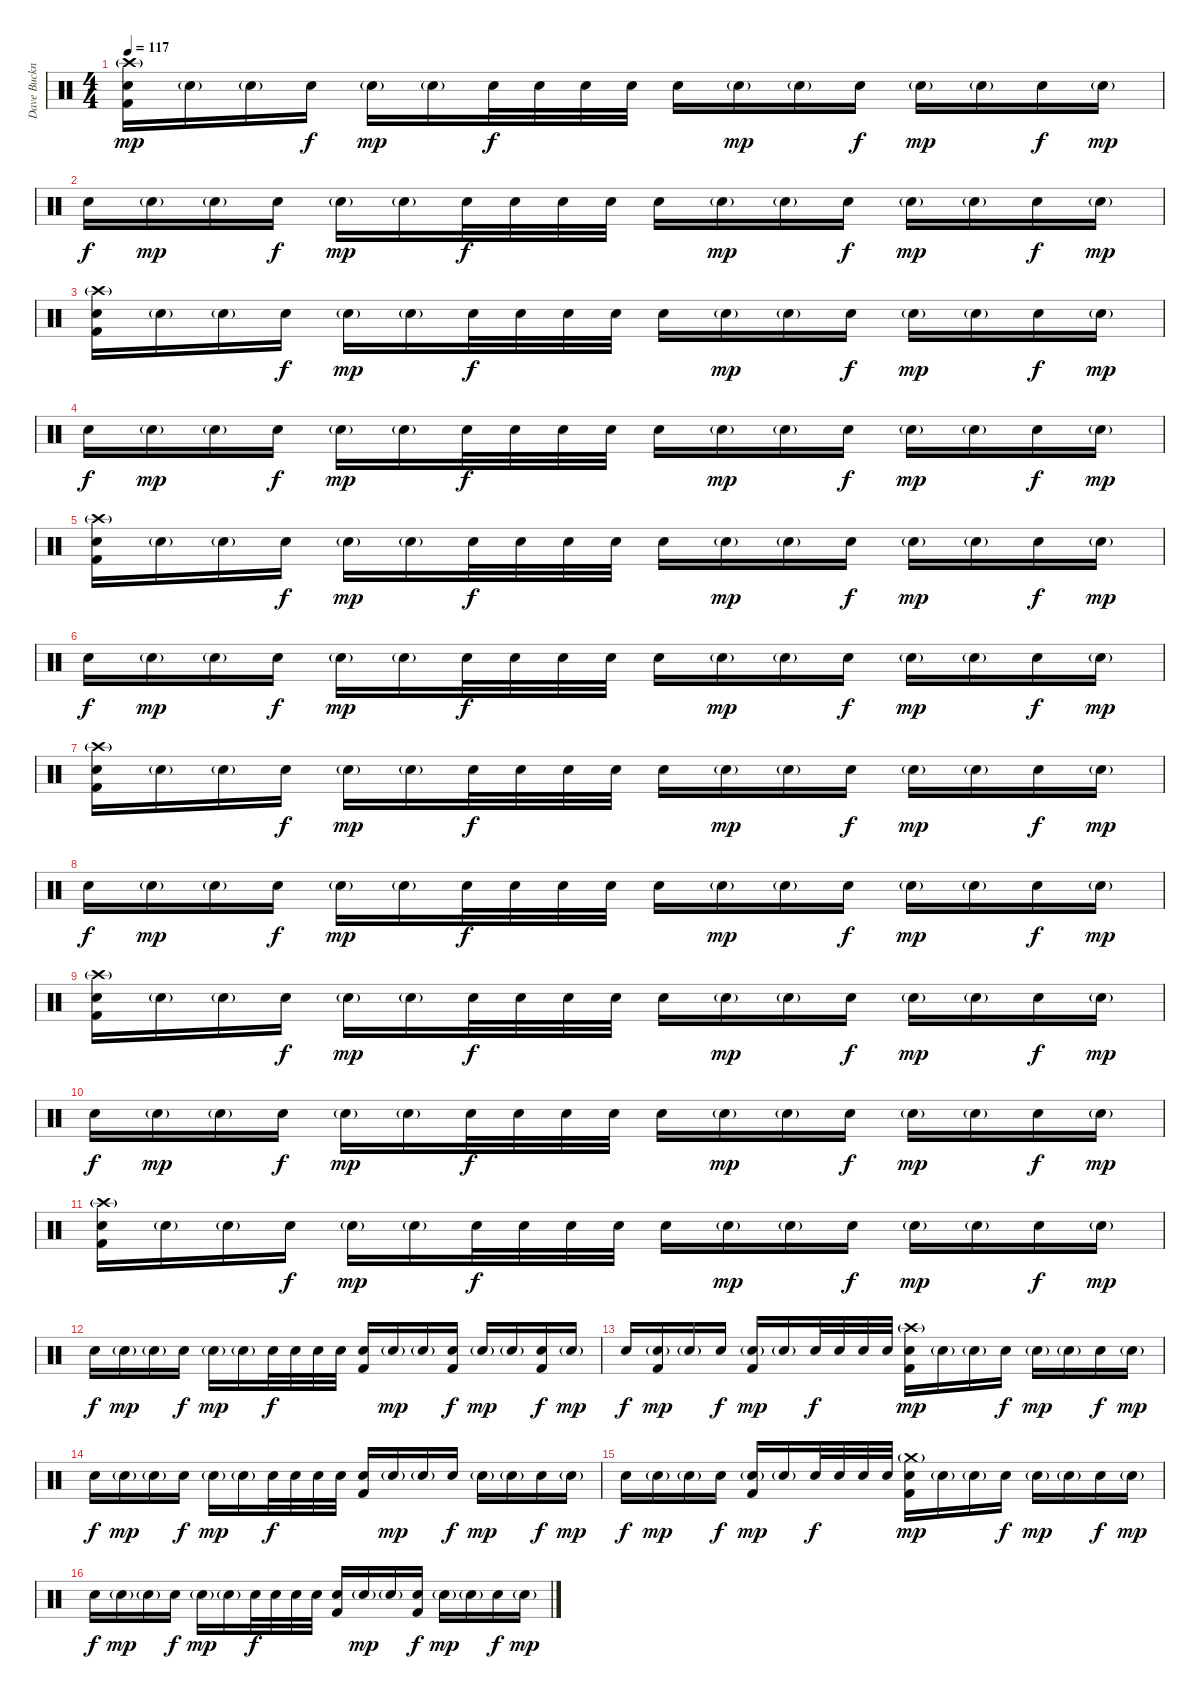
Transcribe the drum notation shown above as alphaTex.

\track ("Dave Buckner RULZ!!! (Drums)" "Dave Buckn") {instrument percussion}
\staff {score}
\articulation defaults
\ts (4 4)
\tempo 117
\clef neutral
\ks c
("Crash high (hit)"{g} "Electric Snare (hit)" "Kick (hit) 2").16{dy mp volume 6} "Electric Snare (hit)"{g}.16 "Electric Snare (hit)"{g}.16 "Electric Snare (hit)".16{dy f} "Electric Snare (hit)"{g}.16{dy mp} "Electric Snare (hit)"{g}.16 "Electric Snare (hit)".32{dy f} "Electric Snare (hit)".32 "Electric Snare (hit)".32 "Electric Snare (hit)".32 "Electric Snare (hit)".16 "Electric Snare (hit)"{g}.16{dy mp} "Electric Snare (hit)"{g}.16 "Electric Snare (hit)".16{dy f} "Electric Snare (hit)"{g}.16{dy mp} "Electric Snare (hit)"{g}.16 "Electric Snare (hit)".16{dy f} "Electric Snare (hit)"{g}.16{dy mp} |
"Electric Snare (hit)".16{dy f} "Electric Snare (hit)"{g}.16{dy mp} "Electric Snare (hit)"{g}.16 "Electric Snare (hit)".16{dy f} "Electric Snare (hit)"{g}.16{dy mp} "Electric Snare (hit)"{g}.16 "Electric Snare (hit)".32{dy f} "Electric Snare (hit)".32 "Electric Snare (hit)".32 "Electric Snare (hit)".32 "Electric Snare (hit)".16 "Electric Snare (hit)"{g}.16{dy mp} "Electric Snare (hit)"{g}.16 "Electric Snare (hit)".16{dy f} "Electric Snare (hit)"{g}.16{dy mp} "Electric Snare (hit)"{g}.16 "Electric Snare (hit)".16{dy f} "Electric Snare (hit)"{g}.16{dy mp} |
("Crash high (hit)"{g} "Electric Snare (hit)" "Kick (hit) 2").16 "Electric Snare (hit)"{g}.16 "Electric Snare (hit)"{g}.16 "Electric Snare (hit)".16{dy f} "Electric Snare (hit)"{g}.16{dy mp} "Electric Snare (hit)"{g}.16 "Electric Snare (hit)".32{dy f} "Electric Snare (hit)".32 "Electric Snare (hit)".32 "Electric Snare (hit)".32 "Electric Snare (hit)".16 "Electric Snare (hit)"{g}.16{dy mp} "Electric Snare (hit)"{g}.16 "Electric Snare (hit)".16{dy f} "Electric Snare (hit)"{g}.16{dy mp} "Electric Snare (hit)"{g}.16 "Electric Snare (hit)".16{dy f} "Electric Snare (hit)"{g}.16{dy mp} |
"Electric Snare (hit)".16{dy f} "Electric Snare (hit)"{g}.16{dy mp} "Electric Snare (hit)"{g}.16 "Electric Snare (hit)".16{dy f} "Electric Snare (hit)"{g}.16{dy mp} "Electric Snare (hit)"{g}.16 "Electric Snare (hit)".32{dy f} "Electric Snare (hit)".32 "Electric Snare (hit)".32 "Electric Snare (hit)".32 "Electric Snare (hit)".16 "Electric Snare (hit)"{g}.16{dy mp} "Electric Snare (hit)"{g}.16 "Electric Snare (hit)".16{dy f} "Electric Snare (hit)"{g}.16{dy mp} "Electric Snare (hit)"{g}.16 "Electric Snare (hit)".16{dy f} "Electric Snare (hit)"{g}.16{dy mp} |
("Crash high (hit)"{g} "Electric Snare (hit)" "Kick (hit) 2").16 "Electric Snare (hit)"{g}.16 "Electric Snare (hit)"{g}.16 "Electric Snare (hit)".16{dy f} "Electric Snare (hit)"{g}.16{dy mp} "Electric Snare (hit)"{g}.16 "Electric Snare (hit)".32{dy f} "Electric Snare (hit)".32 "Electric Snare (hit)".32 "Electric Snare (hit)".32 "Electric Snare (hit)".16 "Electric Snare (hit)"{g}.16{dy mp} "Electric Snare (hit)"{g}.16 "Electric Snare (hit)".16{dy f} "Electric Snare (hit)"{g}.16{dy mp} "Electric Snare (hit)"{g}.16 "Electric Snare (hit)".16{dy f} "Electric Snare (hit)"{g}.16{dy mp} |
"Electric Snare (hit)".16{dy f} "Electric Snare (hit)"{g}.16{dy mp} "Electric Snare (hit)"{g}.16 "Electric Snare (hit)".16{dy f} "Electric Snare (hit)"{g}.16{dy mp} "Electric Snare (hit)"{g}.16 "Electric Snare (hit)".32{dy f} "Electric Snare (hit)".32 "Electric Snare (hit)".32 "Electric Snare (hit)".32 "Electric Snare (hit)".16 "Electric Snare (hit)"{g}.16{dy mp} "Electric Snare (hit)"{g}.16 "Electric Snare (hit)".16{dy f} "Electric Snare (hit)"{g}.16{dy mp} "Electric Snare (hit)"{g}.16 "Electric Snare (hit)".16{dy f} "Electric Snare (hit)"{g}.16{dy mp} |
("Crash high (hit)"{g} "Electric Snare (hit)" "Kick (hit) 2").16 "Electric Snare (hit)"{g}.16 "Electric Snare (hit)"{g}.16 "Electric Snare (hit)".16{dy f} "Electric Snare (hit)"{g}.16{dy mp} "Electric Snare (hit)"{g}.16 "Electric Snare (hit)".32{dy f} "Electric Snare (hit)".32 "Electric Snare (hit)".32 "Electric Snare (hit)".32 "Electric Snare (hit)".16 "Electric Snare (hit)"{g}.16{dy mp} "Electric Snare (hit)"{g}.16 "Electric Snare (hit)".16{dy f} "Electric Snare (hit)"{g}.16{dy mp} "Electric Snare (hit)"{g}.16 "Electric Snare (hit)".16{dy f} "Electric Snare (hit)"{g}.16{dy mp} |
"Electric Snare (hit)".16{dy f} "Electric Snare (hit)"{g}.16{dy mp} "Electric Snare (hit)"{g}.16 "Electric Snare (hit)".16{dy f} "Electric Snare (hit)"{g}.16{dy mp} "Electric Snare (hit)"{g}.16 "Electric Snare (hit)".32{dy f} "Electric Snare (hit)".32 "Electric Snare (hit)".32 "Electric Snare (hit)".32 "Electric Snare (hit)".16 "Electric Snare (hit)"{g}.16{dy mp} "Electric Snare (hit)"{g}.16 "Electric Snare (hit)".16{dy f} "Electric Snare (hit)"{g}.16{dy mp} "Electric Snare (hit)"{g}.16 "Electric Snare (hit)".16{dy f} "Electric Snare (hit)"{g}.16{dy mp} |
("Crash high (hit)"{g} "Electric Snare (hit)" "Kick (hit) 2").16 "Electric Snare (hit)"{g}.16 "Electric Snare (hit)"{g}.16 "Electric Snare (hit)".16{dy f} "Electric Snare (hit)"{g}.16{dy mp} "Electric Snare (hit)"{g}.16 "Electric Snare (hit)".32{dy f} "Electric Snare (hit)".32 "Electric Snare (hit)".32 "Electric Snare (hit)".32 "Electric Snare (hit)".16 "Electric Snare (hit)"{g}.16{dy mp} "Electric Snare (hit)"{g}.16 "Electric Snare (hit)".16{dy f} "Electric Snare (hit)"{g}.16{dy mp} "Electric Snare (hit)"{g}.16 "Electric Snare (hit)".16{dy f} "Electric Snare (hit)"{g}.16{dy mp} |
"Electric Snare (hit)".16{dy f} "Electric Snare (hit)"{g}.16{dy mp} "Electric Snare (hit)"{g}.16 "Electric Snare (hit)".16{dy f} "Electric Snare (hit)"{g}.16{dy mp} "Electric Snare (hit)"{g}.16 "Electric Snare (hit)".32{dy f} "Electric Snare (hit)".32 "Electric Snare (hit)".32 "Electric Snare (hit)".32 "Electric Snare (hit)".16 "Electric Snare (hit)"{g}.16{dy mp} "Electric Snare (hit)"{g}.16 "Electric Snare (hit)".16{dy f} "Electric Snare (hit)"{g}.16{dy mp} "Electric Snare (hit)"{g}.16 "Electric Snare (hit)".16{dy f} "Electric Snare (hit)"{g}.16{dy mp} |
("Crash high (hit)"{g} "Electric Snare (hit)" "Kick (hit) 2").16 "Electric Snare (hit)"{g}.16 "Electric Snare (hit)"{g}.16 "Electric Snare (hit)".16{dy f} "Electric Snare (hit)"{g}.16{dy mp} "Electric Snare (hit)"{g}.16 "Electric Snare (hit)".32{dy f} "Electric Snare (hit)".32 "Electric Snare (hit)".32 "Electric Snare (hit)".32 "Electric Snare (hit)".16 "Electric Snare (hit)"{g}.16{dy mp} "Electric Snare (hit)"{g}.16 "Electric Snare (hit)".16{dy f} "Electric Snare (hit)"{g}.16{dy mp} "Electric Snare (hit)"{g}.16 "Electric Snare (hit)".16{dy f} "Electric Snare (hit)"{g}.16{dy mp} |
"Electric Snare (hit)".16{dy f} "Electric Snare (hit)"{g}.16{dy mp} "Electric Snare (hit)"{g}.16 "Electric Snare (hit)".16{dy f} "Electric Snare (hit)"{g}.16{dy mp} "Electric Snare (hit)"{g}.16 "Electric Snare (hit)".32{dy f} "Electric Snare (hit)".32 "Electric Snare (hit)".32 "Electric Snare (hit)".32 ("Electric Snare (hit)" "Kick (hit) 2").16 "Electric Snare (hit)"{g}.16{dy mp} "Electric Snare (hit)"{g}.16 ("Electric Snare (hit)" "Kick (hit) 2").16{dy f} "Electric Snare (hit)"{g}.16{dy mp} "Electric Snare (hit)"{g}.16 ("Electric Snare (hit)" "Kick (hit) 2").16{dy f} "Electric Snare (hit)"{g}.16{dy mp} |
"Electric Snare (hit)".16{dy f} ("Electric Snare (hit)"{g} "Kick (hit) 2").16{dy mp} "Electric Snare (hit)"{g}.16 "Electric Snare (hit)".16{dy f} ("Electric Snare (hit)"{g} "Kick (hit) 2").16{dy mp} "Electric Snare (hit)"{g}.16 "Electric Snare (hit)".32{dy f} "Electric Snare (hit)".32 "Electric Snare (hit)".32 "Electric Snare (hit)".32 ("Crash high (hit)"{g} "Electric Snare (hit)" "Kick (hit) 2").16{dy mp} "Electric Snare (hit)"{g}.16 "Electric Snare (hit)"{g}.16 "Electric Snare (hit)".16{dy f} "Electric Snare (hit)"{g}.16{dy mp} "Electric Snare (hit)"{g}.16 "Electric Snare (hit)".16{dy f} "Electric Snare (hit)"{g}.16{dy mp} |
"Electric Snare (hit)".16{dy f} "Electric Snare (hit)"{g}.16{dy mp} "Electric Snare (hit)"{g}.16 "Electric Snare (hit)".16{dy f} "Electric Snare (hit)"{g}.16{dy mp} "Electric Snare (hit)"{g}.16 "Electric Snare (hit)".32{dy f} "Electric Snare (hit)".32 "Electric Snare (hit)".32 "Electric Snare (hit)".32 ("Electric Snare (hit)" "Kick (hit) 2").16 "Electric Snare (hit)"{g}.16{dy mp} "Electric Snare (hit)"{g}.16 "Electric Snare (hit)".16{dy f} "Electric Snare (hit)"{g}.16{dy mp} "Electric Snare (hit)"{g}.16 "Electric Snare (hit)".16{dy f} "Electric Snare (hit)"{g}.16{dy mp} |
"Electric Snare (hit)".16{dy f} "Electric Snare (hit)"{g}.16{dy mp} "Electric Snare (hit)"{g}.16 "Electric Snare (hit)".16{dy f} ("Electric Snare (hit)"{g} "Kick (hit) 2").16{dy mp} "Electric Snare (hit)"{g}.16 "Electric Snare (hit)".32{dy f} "Electric Snare (hit)".32 "Electric Snare (hit)".32 "Electric Snare (hit)".32 ("Crash medium (hit)"{g} "Electric Snare (hit)" "Kick (hit) 2").16{dy mp} "Electric Snare (hit)"{g}.16 "Electric Snare (hit)"{g}.16 "Electric Snare (hit)".16{dy f} "Electric Snare (hit)"{g}.16{dy mp} "Electric Snare (hit)"{g}.16 "Electric Snare (hit)".16{dy f} "Electric Snare (hit)"{g}.16{dy mp} |
"Electric Snare (hit)".16{dy f} "Electric Snare (hit)"{g}.16{dy mp} "Electric Snare (hit)"{g}.16 "Electric Snare (hit)".16{dy f} "Electric Snare (hit)"{g}.16{dy mp} "Electric Snare (hit)"{g}.16 "Electric Snare (hit)".32{dy f} "Electric Snare (hit)".32 "Electric Snare (hit)".32 "Electric Snare (hit)".32 ("Electric Snare (hit)" "Kick (hit) 2").16 "Electric Snare (hit)"{g}.16{dy mp} "Electric Snare (hit)"{g}.16 ("Electric Snare (hit)" "Kick (hit) 2").16{dy f} "Electric Snare (hit)"{g}.16{dy mp} "Electric Snare (hit)"{g}.16 "Electric Snare (hit)".16{dy f} "Electric Snare (hit)"{g}.16{dy mp}
